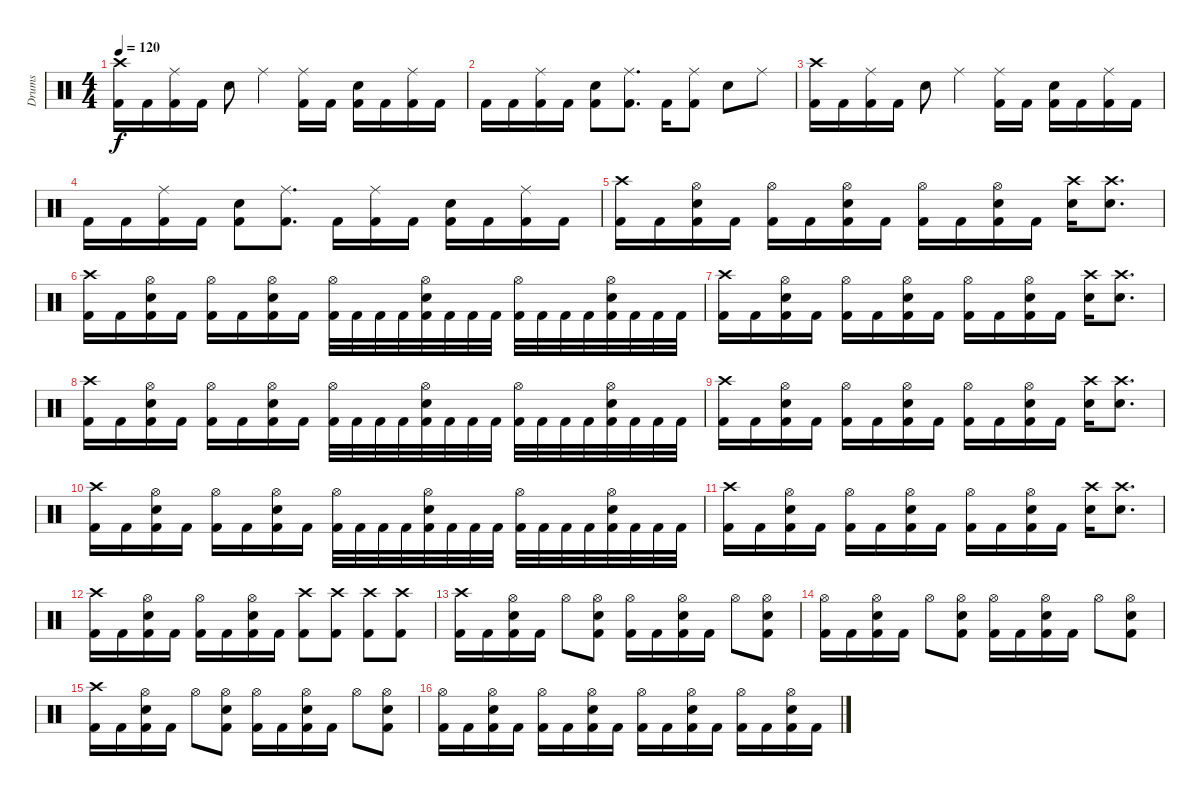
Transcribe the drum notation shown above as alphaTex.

\track ("Drums" "Drums") {instrument percussion}
\staff {score}
\articulation defaults
\ts (4 4)
\tempo 120
\clef neutral
\ks c
("Crash high (hit)" "Kick (hit) 2").16{dy f} "Kick (hit) 2".16 ("Ride (middle)" "Kick (hit) 2").16 "Kick (hit) 2".16 "Snare (hit) 2".8 "Ride (middle)".4 ("Ride (middle)" "Kick (hit) 2").16 "Kick (hit) 2".16 ("Snare (hit) 2" "Kick (hit) 2").16 "Kick (hit) 2".16 ("Ride (middle)" "Kick (hit) 2").16 "Kick (hit) 2".16 |
"Kick (hit) 2".16 "Kick (hit) 2".16 ("Ride (middle)" "Kick (hit) 2").16 "Kick (hit) 2".16 ("Snare (hit) 2" "Kick (hit) 2").8 ("Ride (middle)" "Kick (hit) 2").8{d} "Kick (hit) 2".16 ("Ride (middle)" "Kick (hit) 2").8 "Snare (hit) 2".8 "Ride (middle)".8 |
("Crash high (hit)" "Kick (hit) 2").16 "Kick (hit) 2".16 ("Ride (middle)" "Kick (hit) 2").16 "Kick (hit) 2".16 "Snare (hit) 2".8 "Ride (middle)".4 ("Ride (middle)" "Kick (hit) 2").16 "Kick (hit) 2".16 ("Snare (hit) 2" "Kick (hit) 2").16 "Kick (hit) 2".16 ("Ride (middle)" "Kick (hit) 2").16 "Kick (hit) 2".16 |
"Kick (hit) 2".16 "Kick (hit) 2".16 ("Ride (middle)" "Kick (hit) 2").16 "Kick (hit) 2".16 ("Snare (hit) 2" "Kick (hit) 2").8 ("Ride (middle)" "Kick (hit) 2").8{d} "Kick (hit) 2".16 ("Ride (middle)" "Kick (hit) 2").16 "Kick (hit) 2".16 ("Snare (hit) 2" "Kick (hit) 2").16 "Kick (hit) 2".16 ("Ride (middle)" "Kick (hit) 2").16 "Kick (hit) 2".16 |
("Crash high (hit)" "Kick (hit) 2").16 "Kick (hit) 2".16 ("Hi-Hat (open)" "Snare (hit) 2" "Kick (hit) 2").16 "Kick (hit) 2".16 ("Hi-Hat (open)" "Kick (hit) 2").16 "Kick (hit) 2".16 ("Hi-Hat (open)" "Snare (hit) 2" "Kick (hit) 2").16 "Kick (hit) 2".16 ("Hi-Hat (open)" "Kick (hit) 2").16 "Kick (hit) 2".16 ("Hi-Hat (open)" "Snare (hit) 2" "Kick (hit) 2").16 "Kick (hit) 2".16 ("Crash high (hit)" "Snare (hit) 2").16 ("Crash high (hit)" "Snare (hit) 2").8{d} |
("Crash high (hit)" "Kick (hit) 2").16 "Kick (hit) 2".16 ("Hi-Hat (open)" "Snare (hit) 2" "Kick (hit) 2").16 "Kick (hit) 2".16 ("Hi-Hat (open)" "Kick (hit) 2").16 "Kick (hit) 2".16 ("Hi-Hat (open)" "Snare (hit) 2" "Kick (hit) 2").16 "Kick (hit) 2".16 ("Hi-Hat (open)" "Kick (hit) 2").32 "Kick (hit) 2".32 "Kick (hit) 2".32 "Kick (hit) 2".32 ("Hi-Hat (open)" "Snare (hit) 2" "Kick (hit) 2").32 "Kick (hit) 2".32 "Kick (hit) 2".32 "Kick (hit) 2".32 ("Hi-Hat (open)" "Kick (hit) 2").32 "Kick (hit) 2".32 "Kick (hit) 2".32 "Kick (hit) 2".32 ("Hi-Hat (open)" "Snare (hit) 2" "Kick (hit) 2").32 "Kick (hit) 2".32 "Kick (hit) 2".32 "Kick (hit) 2".32 |
("Crash high (hit)" "Kick (hit) 2").16 "Kick (hit) 2".16 ("Hi-Hat (open)" "Snare (hit) 2" "Kick (hit) 2").16 "Kick (hit) 2".16 ("Hi-Hat (open)" "Kick (hit) 2").16 "Kick (hit) 2".16 ("Hi-Hat (open)" "Snare (hit) 2" "Kick (hit) 2").16 "Kick (hit) 2".16 ("Hi-Hat (open)" "Kick (hit) 2").16 "Kick (hit) 2".16 ("Hi-Hat (open)" "Snare (hit) 2" "Kick (hit) 2").16 "Kick (hit) 2".16 ("Crash high (hit)" "Snare (hit) 2").16 ("Crash high (hit)" "Snare (hit) 2").8{d} |
("Crash high (hit)" "Kick (hit) 2").16 "Kick (hit) 2".16 ("Hi-Hat (open)" "Snare (hit) 2" "Kick (hit) 2").16 "Kick (hit) 2".16 ("Hi-Hat (open)" "Kick (hit) 2").16 "Kick (hit) 2".16 ("Hi-Hat (open)" "Snare (hit) 2" "Kick (hit) 2").16 "Kick (hit) 2".16 ("Hi-Hat (open)" "Kick (hit) 2").32 "Kick (hit) 2".32 "Kick (hit) 2".32 "Kick (hit) 2".32 ("Hi-Hat (open)" "Snare (hit) 2" "Kick (hit) 2").32 "Kick (hit) 2".32 "Kick (hit) 2".32 "Kick (hit) 2".32 ("Hi-Hat (open)" "Kick (hit) 2").32 "Kick (hit) 2".32 "Kick (hit) 2".32 "Kick (hit) 2".32 ("Hi-Hat (open)" "Snare (hit) 2" "Kick (hit) 2").32 "Kick (hit) 2".32 "Kick (hit) 2".32 "Kick (hit) 2".32 |
("Crash high (hit)" "Kick (hit) 2").16 "Kick (hit) 2".16 ("Hi-Hat (open)" "Snare (hit) 2" "Kick (hit) 2").16 "Kick (hit) 2".16 ("Hi-Hat (open)" "Kick (hit) 2").16 "Kick (hit) 2".16 ("Hi-Hat (open)" "Snare (hit) 2" "Kick (hit) 2").16 "Kick (hit) 2".16 ("Hi-Hat (open)" "Kick (hit) 2").16 "Kick (hit) 2".16 ("Hi-Hat (open)" "Snare (hit) 2" "Kick (hit) 2").16 "Kick (hit) 2".16 ("Crash high (hit)" "Snare (hit) 2").16 ("Crash high (hit)" "Snare (hit) 2").8{d} |
("Crash high (hit)" "Kick (hit) 2").16 "Kick (hit) 2".16 ("Hi-Hat (open)" "Snare (hit) 2" "Kick (hit) 2").16 "Kick (hit) 2".16 ("Hi-Hat (open)" "Kick (hit) 2").16 "Kick (hit) 2".16 ("Hi-Hat (open)" "Snare (hit) 2" "Kick (hit) 2").16 "Kick (hit) 2".16 ("Hi-Hat (open)" "Kick (hit) 2").32 "Kick (hit) 2".32 "Kick (hit) 2".32 "Kick (hit) 2".32 ("Hi-Hat (open)" "Snare (hit) 2" "Kick (hit) 2").32 "Kick (hit) 2".32 "Kick (hit) 2".32 "Kick (hit) 2".32 ("Hi-Hat (open)" "Kick (hit) 2").32 "Kick (hit) 2".32 "Kick (hit) 2".32 "Kick (hit) 2".32 ("Hi-Hat (open)" "Snare (hit) 2" "Kick (hit) 2").32 "Kick (hit) 2".32 "Kick (hit) 2".32 "Kick (hit) 2".32 |
("Crash high (hit)" "Kick (hit) 2").16 "Kick (hit) 2".16 ("Hi-Hat (open)" "Snare (hit) 2" "Kick (hit) 2").16 "Kick (hit) 2".16 ("Hi-Hat (open)" "Kick (hit) 2").16 "Kick (hit) 2".16 ("Hi-Hat (open)" "Snare (hit) 2" "Kick (hit) 2").16 "Kick (hit) 2".16 ("Hi-Hat (open)" "Kick (hit) 2").16 "Kick (hit) 2".16 ("Hi-Hat (open)" "Snare (hit) 2" "Kick (hit) 2").16 "Kick (hit) 2".16 ("Crash high (hit)" "Snare (hit) 2").16 ("Crash high (hit)" "Snare (hit) 2").8{d} |
("Crash high (hit)" "Kick (hit) 2").16 "Kick (hit) 2".16 ("Hi-Hat (open)" "Snare (hit) 2" "Kick (hit) 2").16 "Kick (hit) 2".16 ("Hi-Hat (open)" "Kick (hit) 2").16 "Kick (hit) 2".16 ("Hi-Hat (open)" "Snare (hit) 2" "Kick (hit) 2").16 "Kick (hit) 2".16 ("Crash high (hit)" "Kick (hit) 2").8 ("Crash high (hit)" "Kick (hit) 2").8 ("Crash high (hit)" "Kick (hit) 2").8 ("Crash high (hit)" "Kick (hit) 2").8 |
("Crash high (hit)" "Kick (hit) 2").16 "Kick (hit) 2".16 ("Hi-Hat (open)" "Snare (hit) 2" "Kick (hit) 2").16 "Kick (hit) 2".16 "Hi-Hat (open)".8 ("Hi-Hat (open)" "Snare (hit) 2" "Kick (hit) 2").8 ("Hi-Hat (open)" "Kick (hit) 2").16 "Kick (hit) 2".16 ("Hi-Hat (open)" "Snare (hit) 2" "Kick (hit) 2").16 "Kick (hit) 2".16 "Hi-Hat (open)".8 ("Hi-Hat (open)" "Snare (hit) 2" "Kick (hit) 2").8 |
("Hi-Hat (open)" "Kick (hit) 2").16 "Kick (hit) 2".16 ("Hi-Hat (open)" "Snare (hit) 2" "Kick (hit) 2").16 "Kick (hit) 2".16 "Hi-Hat (open)".8 ("Hi-Hat (open)" "Snare (hit) 2" "Kick (hit) 2").8 ("Hi-Hat (open)" "Kick (hit) 2").16 "Kick (hit) 2".16 ("Hi-Hat (open)" "Snare (hit) 2" "Kick (hit) 2").16 "Kick (hit) 2".16 "Hi-Hat (open)".8 ("Hi-Hat (open)" "Snare (hit) 2" "Kick (hit) 2").8 |
("Crash high (hit)" "Kick (hit) 2").16 "Kick (hit) 2".16 ("Hi-Hat (open)" "Snare (hit) 2" "Kick (hit) 2").16 "Kick (hit) 2".16 "Hi-Hat (open)".8 ("Hi-Hat (open)" "Snare (hit) 2" "Kick (hit) 2").8 ("Hi-Hat (open)" "Kick (hit) 2").16 "Kick (hit) 2".16 ("Hi-Hat (open)" "Snare (hit) 2" "Kick (hit) 2").16 "Kick (hit) 2".16 "Hi-Hat (open)".8 ("Hi-Hat (open)" "Snare (hit) 2" "Kick (hit) 2").8 |
("Hi-Hat (open)" "Kick (hit) 2").16 "Kick (hit) 2".16 ("Hi-Hat (open)" "Snare (hit) 2" "Kick (hit) 2").16 "Kick (hit) 2".16 ("Hi-Hat (open)" "Kick (hit) 2").16 "Kick (hit) 2".16 ("Hi-Hat (open)" "Snare (hit) 2" "Kick (hit) 2").16 "Kick (hit) 2".16 ("Hi-Hat (open)" "Kick (hit) 2").16 "Kick (hit) 2".16 ("Hi-Hat (open)" "Snare (hit) 2" "Kick (hit) 2").16 "Kick (hit) 2".16 ("Hi-Hat (open)" "Kick (hit) 2").16 "Kick (hit) 2".16 ("Hi-Hat (open)" "Snare (hit) 2" "Kick (hit) 2").16 "Kick (hit) 2".16
